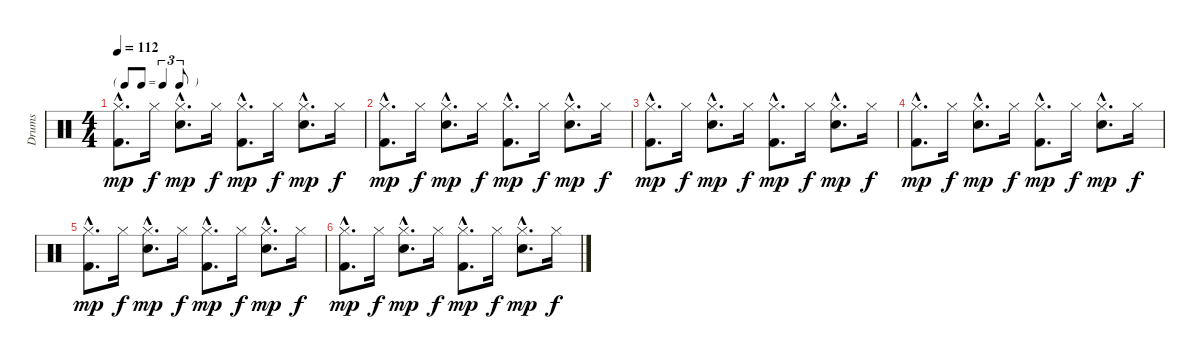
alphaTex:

\track ("Drums" "Drums") {instrument percussion}
\staff {score}
\articulation defaults
\ts (4 4)
\tf triplet8th
\tempo 112
\clef neutral
\ks c
("Kick (hit) 2"{hac} "Hi-Hat (closed)"{hac}).8{d dy mp} "Hi-Hat (closed)".16{dy f} ("Snare (hit) 2"{hac} "Hi-Hat (closed)"{hac}).8{d dy mp} "Hi-Hat (closed)".16{dy f} ("Kick (hit) 2"{hac} "Hi-Hat (closed)"{hac}).8{d dy mp} "Hi-Hat (closed)".16{dy f} ("Snare (hit) 2"{hac} "Hi-Hat (closed)"{hac}).8{d dy mp} "Hi-Hat (closed)".16{dy f} |
("Kick (hit) 2"{hac} "Hi-Hat (closed)"{hac}).8{d dy mp} "Hi-Hat (closed)".16{dy f} ("Snare (hit) 2"{hac} "Hi-Hat (closed)"{hac}).8{d dy mp} "Hi-Hat (closed)".16{dy f} ("Kick (hit) 2"{hac} "Hi-Hat (closed)"{hac}).8{d dy mp} "Hi-Hat (closed)".16{dy f} ("Snare (hit) 2"{hac} "Hi-Hat (closed)"{hac}).8{d dy mp} "Hi-Hat (closed)".16{dy f} |
("Kick (hit) 2"{hac} "Hi-Hat (closed)"{hac}).8{d dy mp} "Hi-Hat (closed)".16{dy f} ("Snare (hit) 2"{hac} "Hi-Hat (closed)"{hac}).8{d dy mp} "Hi-Hat (closed)".16{dy f} ("Kick (hit) 2"{hac} "Hi-Hat (closed)"{hac}).8{d dy mp} "Hi-Hat (closed)".16{dy f} ("Snare (hit) 2"{hac} "Hi-Hat (closed)"{hac}).8{d dy mp} "Hi-Hat (closed)".16{dy f} |
("Kick (hit) 2"{hac} "Hi-Hat (closed)"{hac}).8{d dy mp} "Hi-Hat (closed)".16{dy f} ("Snare (hit) 2"{hac} "Hi-Hat (closed)"{hac}).8{d dy mp} "Hi-Hat (closed)".16{dy f} ("Kick (hit) 2"{hac} "Hi-Hat (closed)"{hac}).8{d dy mp} "Hi-Hat (closed)".16{dy f} ("Snare (hit) 2"{hac} "Hi-Hat (closed)"{hac}).8{d dy mp} "Hi-Hat (closed)".16{dy f} |
("Kick (hit) 2"{hac} "Hi-Hat (closed)"{hac}).8{d dy mp} "Hi-Hat (closed)".16{dy f} ("Snare (hit) 2"{hac} "Hi-Hat (closed)"{hac}).8{d dy mp} "Hi-Hat (closed)".16{dy f} ("Kick (hit) 2"{hac} "Hi-Hat (closed)"{hac}).8{d dy mp} "Hi-Hat (closed)".16{dy f} ("Snare (hit) 2"{hac} "Hi-Hat (closed)"{hac}).8{d dy mp} "Hi-Hat (closed)".16{dy f} |
("Kick (hit) 2"{hac} "Hi-Hat (closed)"{hac}).8{d dy mp} "Hi-Hat (closed)".16{dy f} ("Snare (hit) 2"{hac} "Hi-Hat (closed)"{hac}).8{d dy mp} "Hi-Hat (closed)".16{dy f} ("Kick (hit) 2"{hac} "Hi-Hat (closed)"{hac}).8{d dy mp} "Hi-Hat (closed)".16{dy f} ("Snare (hit) 2"{hac} "Hi-Hat (closed)"{hac}).8{d dy mp} "Hi-Hat (closed)".16{dy f}
